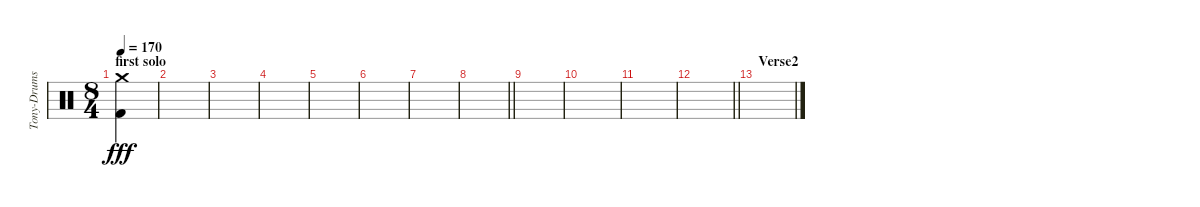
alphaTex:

\track ("Tony-Drums" "Tony-Drums") {instrument percussion}
\staff {score}
\articulation defaults
\ts (8 4)
\section ("" "first solo")
\tempo 170
\clef neutral
\ks c
("Kick (hit) 2" "Crash medium (hit)").4{dy fff} |
|
|
|
|
|
|
\barLineRight lightlight
|
|
|
|
\barLineRight lightlight
|
\section ("" "Verse2")
